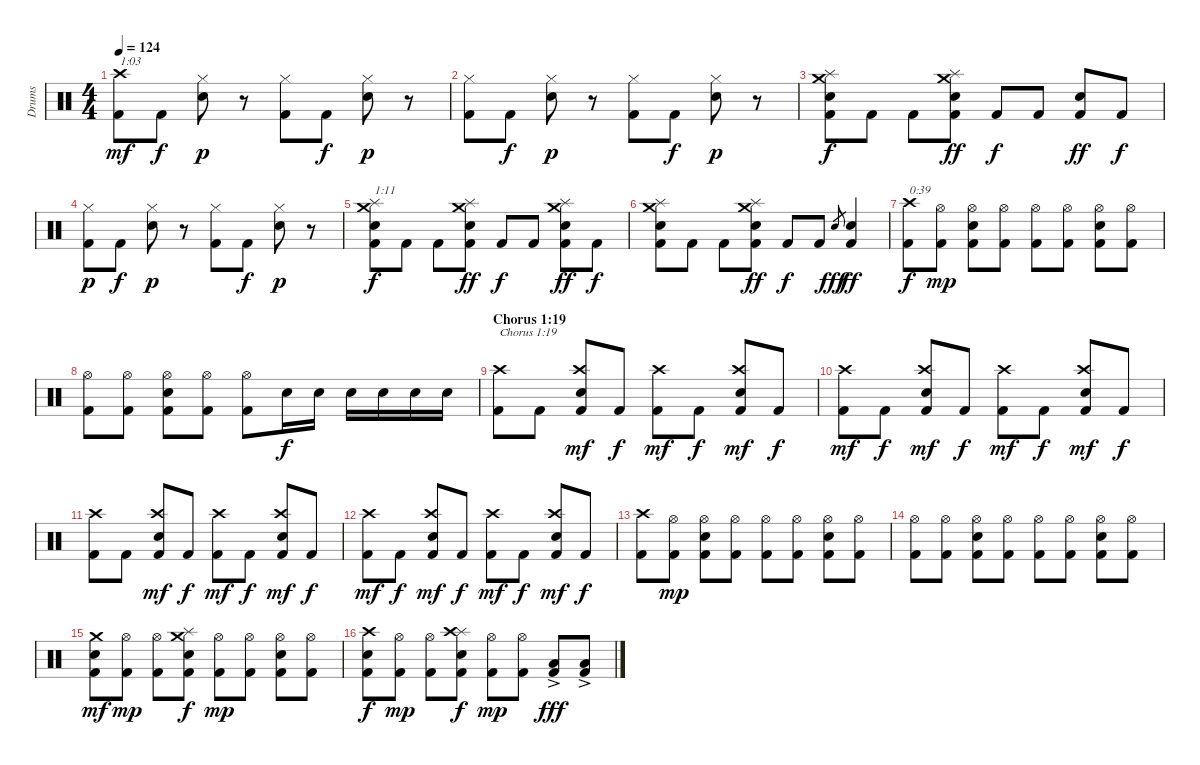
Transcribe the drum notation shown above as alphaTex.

\track ("Drums" "Drums") {instrument percussion}
\staff {score}
\articulation defaults
\ts (4 4)
\tempo 124
\clef neutral
\ks c
("Kick (hit) 2" "Crash high (hit)").8{txt "1:03" dy mf} "Kick (hit) 2".8{dy f} ("Electric Snare (hit)" "Hi-Hat (closed)").8{dy p} r.8 ("Kick (hit) 2" "Hi-Hat (closed)").8 "Kick (hit) 2".8{dy f} ("Electric Snare (hit)" "Hi-Hat (closed)").8{dy p} r.8 |
("Kick (hit) 2" "Hi-Hat (closed)").8 "Kick (hit) 2".8{dy f} ("Electric Snare (hit)" "Hi-Hat (closed)").8{dy p} r.8 ("Kick (hit) 2" "Hi-Hat (closed)").8 "Kick (hit) 2".8{dy f} ("Electric Snare (hit)" "Hi-Hat (closed)").8{dy p} r.8 |
("Kick (hit) 2" "Electric Snare (hit)" "Splash (hit)" "Crash medium (hit)").8{dy f} "Kick (hit) 2".8 "Kick (hit) 2".8 ("Kick (hit) 2" "Electric Snare (hit)" "Splash (hit)" "Crash medium (hit)").8{dy ff} "Kick (hit) 2".8{dy f} "Kick (hit) 2".8 ("Kick (hit) 2" "Electric Snare (hit)").8{dy ff} "Kick (hit) 2".8{dy f} |
("Kick (hit) 2" "Hi-Hat (closed)").8{dy p} "Kick (hit) 2".8{dy f} ("Electric Snare (hit)" "Hi-Hat (closed)").8{dy p} r.8 ("Kick (hit) 2" "Hi-Hat (closed)").8 "Kick (hit) 2".8{dy f} ("Electric Snare (hit)" "Hi-Hat (closed)").8{dy p} r.8 |
("Kick (hit) 2" "Electric Snare (hit)" "Splash (hit)" "Crash medium (hit)").8{txt "1:11" dy f} "Kick (hit) 2".8 "Kick (hit) 2".8 ("Kick (hit) 2" "Electric Snare (hit)" "Splash (hit)" "Crash medium (hit)").8{dy ff} "Kick (hit) 2".8{dy f} "Kick (hit) 2".8 ("Kick (hit) 2" "Electric Snare (hit)" "Splash (hit)" "Crash medium (hit)").8{dy ff} "Kick (hit) 2".8{dy f} |
("Kick (hit) 2" "Electric Snare (hit)" "Splash (hit)" "Crash medium (hit)").8 "Kick (hit) 2".8 "Kick (hit) 2".8 ("Kick (hit) 2" "Electric Snare (hit)" "Splash (hit)" "Crash medium (hit)").8{dy ff} "Kick (hit) 2".8{dy f} "Kick (hit) 2".8 "Electric Snare (hit)".8{gr dy fff} ("Kick (hit) 2" "Electric Snare (hit)").4{dy ff} |
("Kick (hit) 2" "Crash high (hit)").8{txt "0:39" dy f} ("Kick (hit) 2" "Hi-Hat (open)").8{dy mp} ("Kick (hit) 2" "Electric Snare (hit)" "Hi-Hat (open)").8 ("Kick (hit) 2" "Hi-Hat (open)").8 ("Kick (hit) 2" "Hi-Hat (open)").8 ("Kick (hit) 2" "Hi-Hat (open)").8 ("Kick (hit) 2" "Electric Snare (hit)" "Hi-Hat (open)").8 ("Kick (hit) 2" "Hi-Hat (open)").8 |
("Kick (hit) 2" "Hi-Hat (open)").8 ("Kick (hit) 2" "Hi-Hat (open)").8 ("Kick (hit) 2" "Electric Snare (hit)" "Hi-Hat (open)").8 ("Kick (hit) 2" "Hi-Hat (open)").8 ("Kick (hit) 2" "Hi-Hat (open)").8 "Electric Snare (hit)".16{dy f} "Electric Snare (hit)".16 "Electric Snare (hit)".16 "Electric Snare (hit)".16 "Electric Snare (hit)".16 "Electric Snare (hit)".16 |
\section ("" "Chorus 1:19")
("Kick (hit) 2" "Crash high (hit)").8{txt "Chorus 1:19"} "Kick (hit) 2".8 ("Kick (hit) 2" "Electric Snare (hit)" "Crash high (hit)").8{dy mf} "Kick (hit) 2".8{dy f} ("Kick (hit) 2" "Crash high (hit)").8{dy mf} "Kick (hit) 2".8{dy f} ("Kick (hit) 2" "Electric Snare (hit)" "Crash high (hit)").8{dy mf} "Kick (hit) 2".8{dy f} |
("Kick (hit) 2" "Crash high (hit)").8{dy mf} "Kick (hit) 2".8{dy f} ("Kick (hit) 2" "Electric Snare (hit)" "Crash high (hit)").8{dy mf} "Kick (hit) 2".8{dy f} ("Kick (hit) 2" "Crash high (hit)").8{dy mf} "Kick (hit) 2".8{dy f} ("Kick (hit) 2" "Electric Snare (hit)" "Crash high (hit)").8{dy mf} "Kick (hit) 2".8{dy f} |
("Kick (hit) 2" "Crash high (hit)").8 "Kick (hit) 2".8 ("Kick (hit) 2" "Electric Snare (hit)" "Crash high (hit)").8{dy mf} "Kick (hit) 2".8{dy f} ("Kick (hit) 2" "Crash high (hit)").8{dy mf} "Kick (hit) 2".8{dy f} ("Kick (hit) 2" "Electric Snare (hit)" "Crash high (hit)").8{dy mf} "Kick (hit) 2".8{dy f} |
("Kick (hit) 2" "Crash high (hit)").8{dy mf} "Kick (hit) 2".8{dy f} ("Kick (hit) 2" "Electric Snare (hit)" "Crash high (hit)").8{dy mf} "Kick (hit) 2".8{dy f} ("Kick (hit) 2" "Crash high (hit)").8{dy mf} "Kick (hit) 2".8{dy f} ("Kick (hit) 2" "Electric Snare (hit)" "Crash high (hit)").8{dy mf} "Kick (hit) 2".8{dy f} |
("Kick (hit) 2" "Crash high (hit)").8 ("Kick (hit) 2" "Hi-Hat (open)").8{dy mp} ("Kick (hit) 2" "Electric Snare (hit)" "Hi-Hat (open)").8 ("Kick (hit) 2" "Hi-Hat (open)").8 ("Kick (hit) 2" "Hi-Hat (open)").8 ("Kick (hit) 2" "Hi-Hat (open)").8 ("Kick (hit) 2" "Electric Snare (hit)" "Hi-Hat (open)").8 ("Kick (hit) 2" "Hi-Hat (open)").8 |
("Kick (hit) 2" "Hi-Hat (open)").8 ("Kick (hit) 2" "Hi-Hat (open)").8 ("Kick (hit) 2" "Electric Snare (hit)" "Hi-Hat (open)").8 ("Kick (hit) 2" "Hi-Hat (open)").8 ("Kick (hit) 2" "Hi-Hat (open)").8 ("Kick (hit) 2" "Hi-Hat (open)").8 ("Kick (hit) 2" "Electric Snare (hit)" "Hi-Hat (open)").8 ("Kick (hit) 2" "Hi-Hat (open)").8 |
("Kick (hit) 2" "Electric Snare (hit)" "Crash medium (hit)").8{dy mf} ("Kick (hit) 2" "Hi-Hat (open)").8{dy mp} ("Kick (hit) 2" "Hi-Hat (open)").8 ("Kick (hit) 2" "Electric Snare (hit)" "Splash (hit)" "Crash medium (hit)").8{dy f} ("Kick (hit) 2" "Hi-Hat (open)").8{dy mp} ("Kick (hit) 2" "Hi-Hat (open)").8 ("Kick (hit) 2" "Electric Snare (hit)" "Hi-Hat (open)").8 ("Kick (hit) 2" "Hi-Hat (open)").8 |
("Kick (hit) 2" "Electric Snare (hit)" "Crash high (hit)").8{dy f} ("Kick (hit) 2" "Hi-Hat (open)").8{dy mp} ("Kick (hit) 2" "Hi-Hat (open)").8 ("Kick (hit) 2" "Electric Snare (hit)" "Splash (hit)" "Crash high (hit)").8{dy f} ("Kick (hit) 2" "Hi-Hat (open)").8{dy mp} ("Kick (hit) 2" "Hi-Hat (open)").8 ("Kick (hit) 2" "Low Tom (hit)"{ac}).8{dy fff} ("Kick (hit) 2" "Low Tom (hit)"{ac}).8
